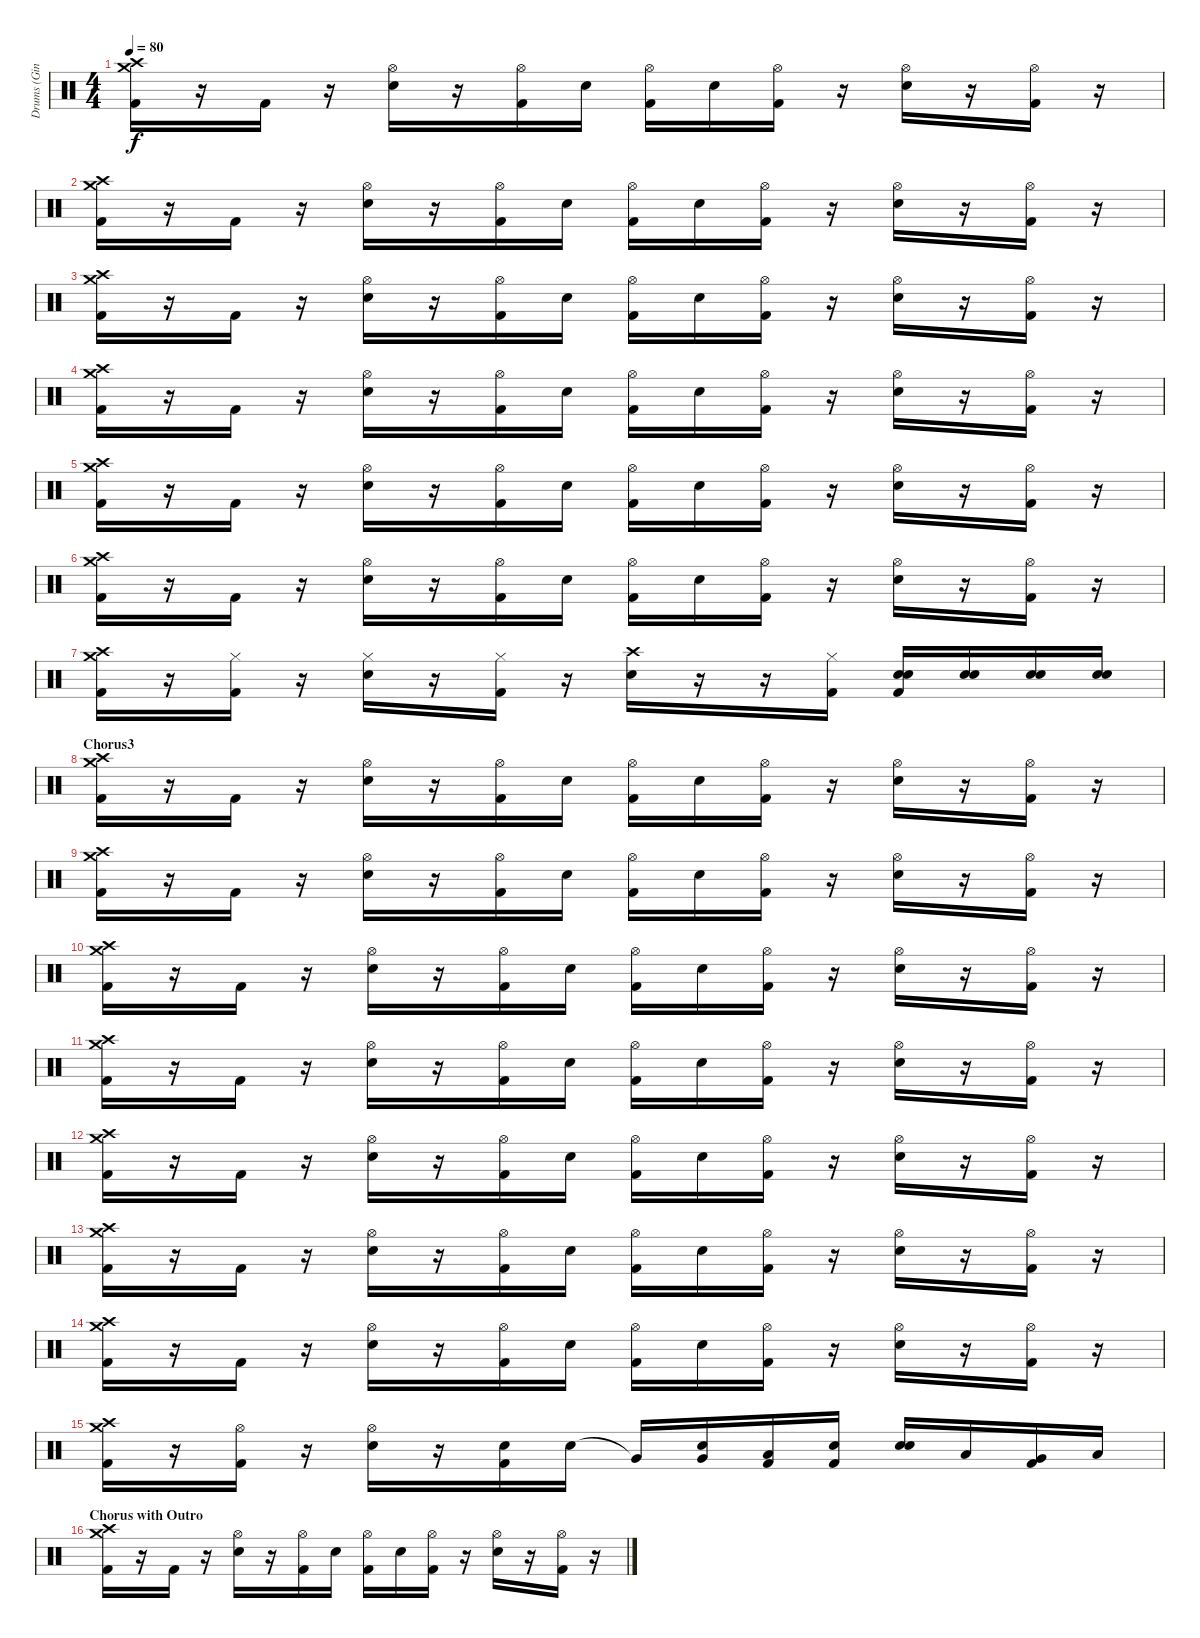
\track ("Drums (Ginger Fish)" "Drums (Gin") {instrument percussion}
\staff {score}
\articulation defaults
\ts (4 4)
\tempo 80
\clef neutral
\ks c
("Crash high (hit)" "Crash medium (hit)" "Kick (hit) 2").16{dy f} r.16 "Kick (hit) 2".16 r.16 ("Hi-Hat (open)" "Electric Snare (hit)").16 r.16 ("Hi-Hat (open)" "Kick (hit) 2").16 "Electric Snare (hit)".16 ("Hi-Hat (open)" "Kick (hit) 2").16 "Electric Snare (hit)".16 ("Hi-Hat (open)" "Kick (hit) 2").16 r.16 ("Hi-Hat (open)" "Electric Snare (hit)").16 r.16 ("Hi-Hat (open)" "Kick (hit) 2").16 r.16 |
("Crash high (hit)" "Crash medium (hit)" "Kick (hit) 2").16 r.16 "Kick (hit) 2".16 r.16 ("Hi-Hat (open)" "Electric Snare (hit)").16 r.16 ("Hi-Hat (open)" "Kick (hit) 2").16 "Electric Snare (hit)".16 ("Hi-Hat (open)" "Kick (hit) 2").16 "Electric Snare (hit)".16 ("Hi-Hat (open)" "Kick (hit) 2").16 r.16 ("Hi-Hat (open)" "Electric Snare (hit)").16 r.16 ("Hi-Hat (open)" "Kick (hit) 2").16 r.16 |
("Crash high (hit)" "Crash medium (hit)" "Kick (hit) 2").16 r.16 "Kick (hit) 2".16 r.16 ("Hi-Hat (open)" "Electric Snare (hit)").16 r.16 ("Hi-Hat (open)" "Kick (hit) 2").16 "Electric Snare (hit)".16 ("Hi-Hat (open)" "Kick (hit) 2").16 "Electric Snare (hit)".16 ("Hi-Hat (open)" "Kick (hit) 2").16 r.16 ("Hi-Hat (open)" "Electric Snare (hit)").16 r.16 ("Hi-Hat (open)" "Kick (hit) 2").16 r.16 |
("Crash high (hit)" "Crash medium (hit)" "Kick (hit) 2").16 r.16 "Kick (hit) 2".16 r.16 ("Hi-Hat (open)" "Electric Snare (hit)").16 r.16 ("Hi-Hat (open)" "Kick (hit) 2").16 "Electric Snare (hit)".16 ("Hi-Hat (open)" "Kick (hit) 2").16 "Electric Snare (hit)".16 ("Hi-Hat (open)" "Kick (hit) 2").16 r.16 ("Hi-Hat (open)" "Electric Snare (hit)").16 r.16 ("Hi-Hat (open)" "Kick (hit) 2").16 r.16 |
("Crash high (hit)" "Crash medium (hit)" "Kick (hit) 2").16 r.16 "Kick (hit) 2".16 r.16 ("Hi-Hat (open)" "Electric Snare (hit)").16 r.16 ("Hi-Hat (open)" "Kick (hit) 2").16 "Electric Snare (hit)".16 ("Hi-Hat (open)" "Kick (hit) 2").16 "Electric Snare (hit)".16 ("Hi-Hat (open)" "Kick (hit) 2").16 r.16 ("Hi-Hat (open)" "Electric Snare (hit)").16 r.16 ("Hi-Hat (open)" "Kick (hit) 2").16 r.16 |
("Crash high (hit)" "Crash medium (hit)" "Kick (hit) 2").16 r.16 "Kick (hit) 2".16 r.16 ("Hi-Hat (open)" "Electric Snare (hit)").16 r.16 ("Hi-Hat (open)" "Kick (hit) 2").16 "Electric Snare (hit)".16 ("Hi-Hat (open)" "Kick (hit) 2").16 "Electric Snare (hit)".16 ("Hi-Hat (open)" "Kick (hit) 2").16 r.16 ("Hi-Hat (open)" "Electric Snare (hit)").16 r.16 ("Hi-Hat (open)" "Kick (hit) 2").16 r.16 |
("Crash high (hit)" "Crash medium (hit)" "Kick (hit) 2").16 r.16 ("Hi-Hat (closed)" "Kick (hit) 2").16 r.16 ("Hi-Hat (closed)" "Electric Snare (hit)").16 r.16 ("Hi-Hat (closed)" "Kick (hit) 2").16 r.16 ("Crash high (hit)" "Electric Snare (hit)").16 r.16 r.16 ("Hi-Hat (closed)" "Kick (hit) 2").16 ("Electric Snare (hit)" "Snare (hit) 2" "Kick (hit) 2").16 ("Electric Snare (hit)" "Snare (hit) 2").16 ("Electric Snare (hit)" "Snare (hit) 2").16 ("Electric Snare (hit)" "Snare (hit) 2").16 |
\section ("" "Chorus3")
("Crash high (hit)" "Crash medium (hit)" "Kick (hit) 2").16 r.16 "Kick (hit) 2".16 r.16 ("Hi-Hat (open)" "Electric Snare (hit)").16 r.16 ("Hi-Hat (open)" "Kick (hit) 2").16 "Electric Snare (hit)".16 ("Hi-Hat (open)" "Kick (hit) 2").16 "Electric Snare (hit)".16 ("Hi-Hat (open)" "Kick (hit) 2").16 r.16 ("Hi-Hat (open)" "Electric Snare (hit)").16 r.16 ("Hi-Hat (open)" "Kick (hit) 2").16 r.16 |
("Crash high (hit)" "Crash medium (hit)" "Kick (hit) 2").16 r.16 "Kick (hit) 2".16 r.16 ("Hi-Hat (open)" "Electric Snare (hit)").16 r.16 ("Hi-Hat (open)" "Kick (hit) 2").16 "Electric Snare (hit)".16 ("Hi-Hat (open)" "Kick (hit) 2").16 "Electric Snare (hit)".16 ("Hi-Hat (open)" "Kick (hit) 2").16 r.16 ("Hi-Hat (open)" "Electric Snare (hit)").16 r.16 ("Hi-Hat (open)" "Kick (hit) 2").16 r.16 |
("Crash high (hit)" "Crash medium (hit)" "Kick (hit) 2").16 r.16 "Kick (hit) 2".16 r.16 ("Hi-Hat (open)" "Electric Snare (hit)").16 r.16 ("Hi-Hat (open)" "Kick (hit) 2").16 "Electric Snare (hit)".16 ("Hi-Hat (open)" "Kick (hit) 2").16 "Electric Snare (hit)".16 ("Hi-Hat (open)" "Kick (hit) 2").16 r.16 ("Hi-Hat (open)" "Electric Snare (hit)").16 r.16 ("Hi-Hat (open)" "Kick (hit) 2").16 r.16 |
("Crash high (hit)" "Crash medium (hit)" "Kick (hit) 2").16 r.16 "Kick (hit) 2".16 r.16 ("Hi-Hat (open)" "Electric Snare (hit)").16 r.16 ("Hi-Hat (open)" "Kick (hit) 2").16 "Electric Snare (hit)".16 ("Hi-Hat (open)" "Kick (hit) 2").16 "Electric Snare (hit)".16 ("Hi-Hat (open)" "Kick (hit) 2").16 r.16 ("Hi-Hat (open)" "Electric Snare (hit)").16 r.16 ("Hi-Hat (open)" "Kick (hit) 2").16 r.16 |
("Crash high (hit)" "Crash medium (hit)" "Kick (hit) 2").16 r.16 "Kick (hit) 2".16 r.16 ("Hi-Hat (open)" "Electric Snare (hit)").16 r.16 ("Hi-Hat (open)" "Kick (hit) 2").16 "Electric Snare (hit)".16 ("Hi-Hat (open)" "Kick (hit) 2").16 "Electric Snare (hit)".16 ("Hi-Hat (open)" "Kick (hit) 2").16 r.16 ("Hi-Hat (open)" "Electric Snare (hit)").16 r.16 ("Hi-Hat (open)" "Kick (hit) 2").16 r.16 |
("Crash high (hit)" "Crash medium (hit)" "Kick (hit) 2").16 r.16 "Kick (hit) 2".16 r.16 ("Hi-Hat (open)" "Electric Snare (hit)").16 r.16 ("Hi-Hat (open)" "Kick (hit) 2").16 "Electric Snare (hit)".16 ("Hi-Hat (open)" "Kick (hit) 2").16 "Electric Snare (hit)".16 ("Hi-Hat (open)" "Kick (hit) 2").16 r.16 ("Hi-Hat (open)" "Electric Snare (hit)").16 r.16 ("Hi-Hat (open)" "Kick (hit) 2").16 r.16 |
("Crash high (hit)" "Crash medium (hit)" "Kick (hit) 2").16 r.16 "Kick (hit) 2".16 r.16 ("Hi-Hat (open)" "Electric Snare (hit)").16 r.16 ("Hi-Hat (open)" "Kick (hit) 2").16 "Electric Snare (hit)".16 ("Hi-Hat (open)" "Kick (hit) 2").16 "Electric Snare (hit)".16 ("Hi-Hat (open)" "Kick (hit) 2").16 r.16 ("Hi-Hat (open)" "Electric Snare (hit)").16 r.16 ("Hi-Hat (open)" "Kick (hit) 2").16 r.16 |
("Crash high (hit)" "Crash medium (hit)" "Kick (hit) 2").16 r.16 ("Hi-Hat (open)" "Kick (hit) 2").16 r.16 ("Hi-Hat (open)" "Electric Snare (hit)").16 r.16 ("Electric Snare (hit)" "Kick (hit) 2").16 "Electric Snare (hit)".16 "Very Low Tom (hit)"{t}.16 ("Very Low Tom (hit)" "Snare (hit) 2").16 ("Low Floor Tom (hit)" "Kick (hit) 2").16 ("Snare (hit) 2" "Kick (hit) 2").16 ("Electric Snare (hit)" "Snare (hit) 2").16 "Low Tom (hit)".16 ("Very Low Tom (hit)" "Kick (hit) 2").16 "Low Floor Tom (hit)".16 |
\section ("" "Chorus with Outro")
("Crash high (hit)" "Crash medium (hit)" "Kick (hit) 2").16 r.16 "Kick (hit) 2".16 r.16 ("Hi-Hat (open)" "Electric Snare (hit)").16 r.16 ("Hi-Hat (open)" "Kick (hit) 2").16 "Electric Snare (hit)".16 ("Hi-Hat (open)" "Kick (hit) 2").16 "Electric Snare (hit)".16 ("Hi-Hat (open)" "Kick (hit) 2").16 r.16 ("Hi-Hat (open)" "Electric Snare (hit)").16 r.16 ("Hi-Hat (open)" "Kick (hit) 2").16 r.16
